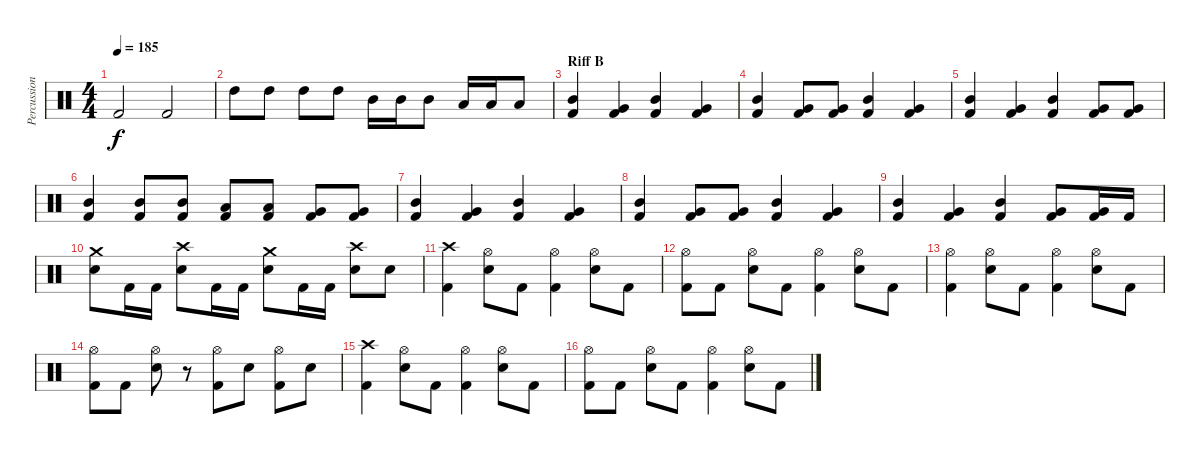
\track ("Percussions" "Percussion") {instrument percussion}
\staff {score}
\articulation defaults
\ts (4 4)
\tempo 185
\clef neutral
\ks c "Kick (hit) 2".2{dy f} "Kick (hit) 2".2
|
"High Tom (hit)".8 "High Tom (hit)".8 "High Tom (hit)".8 "High Tom (hit)".8 "Mid Tom (hit)".16 "Mid Tom (hit)".16 "Mid Tom (hit)".8 "Low Tom (hit)".16 "Low Tom (hit)".16 "Low Tom (hit)".8 |
\section ("" "Riff B")
("Mid Tom (hit)" "Kick (hit) 2").4 ("Very Low Tom (hit)" "Kick (hit) 2").4 ("Mid Tom (hit)" "Kick (hit) 2").4 ("Very Low Tom (hit)" "Kick (hit) 2").4 |
("Mid Tom (hit)" "Kick (hit) 2").4 ("Very Low Tom (hit)" "Kick (hit) 2").8 ("Very Low Tom (hit)" "Kick (hit) 2").8 ("Mid Tom (hit)" "Kick (hit) 2").4 ("Very Low Tom (hit)" "Kick (hit) 2").4 |
("Mid Tom (hit)" "Kick (hit) 2").4 ("Very Low Tom (hit)" "Kick (hit) 2").4 ("Mid Tom (hit)" "Kick (hit) 2").4 ("Very Low Tom (hit)" "Kick (hit) 2").8 ("Very Low Tom (hit)" "Kick (hit) 2").8 |
("Mid Tom (hit)" "Kick (hit) 2").4 ("Mid Tom (hit)" "Kick (hit) 2").8 ("Mid Tom (hit)" "Kick (hit) 2").8 ("Low Tom (hit)" "Kick (hit) 2").8 ("Low Tom (hit)" "Kick (hit) 2").8 ("Very Low Tom (hit)" "Kick (hit) 2").8 ("Very Low Tom (hit)" "Kick (hit) 2").8 |
("Mid Tom (hit)" "Kick (hit) 2").4 ("Very Low Tom (hit)" "Kick (hit) 2").4 ("Mid Tom (hit)" "Kick (hit) 2").4 ("Very Low Tom (hit)" "Kick (hit) 2").4 |
("Mid Tom (hit)" "Kick (hit) 2").4 ("Very Low Tom (hit)" "Kick (hit) 2").8 ("Very Low Tom (hit)" "Kick (hit) 2").8 ("Mid Tom (hit)" "Kick (hit) 2").4 ("Very Low Tom (hit)" "Kick (hit) 2").4 |
("Mid Tom (hit)" "Kick (hit) 2").4 ("Very Low Tom (hit)" "Kick (hit) 2").4 ("Mid Tom (hit)" "Kick (hit) 2").4 ("Very Low Tom (hit)" "Kick (hit) 2").8 ("Very Low Tom (hit)" "Kick (hit) 2").16 "Kick (hit) 2".16 |
("Crash medium (hit)" "Snare (hit) 2").8 "Kick (hit) 2".16 "Kick (hit) 2".16 ("Crash high (hit)" "Snare (hit) 2").8 "Kick (hit) 2".16 "Kick (hit) 2".16 ("Crash medium (hit)" "Snare (hit) 2").8 "Kick (hit) 2".16 "Kick (hit) 2".16 ("Crash high (hit)" "Snare (hit) 2").8 "Snare (hit) 2".8 |
("Crash high (hit)" "Kick (hit) 2").4 ("Hi-Hat (open)" "Snare (hit) 2").8 "Kick (hit) 2".8 ("Hi-Hat (open)" "Kick (hit) 2").4 ("Hi-Hat (open)" "Snare (hit) 2").8 "Kick (hit) 2".8 |
("Hi-Hat (open)" "Kick (hit) 2").8 "Kick (hit) 2".8 ("Hi-Hat (open)" "Snare (hit) 2").8 "Kick (hit) 2".8 ("Hi-Hat (open)" "Kick (hit) 2").4 ("Hi-Hat (open)" "Snare (hit) 2").8 "Kick (hit) 2".8 |
("Hi-Hat (open)" "Kick (hit) 2").4 ("Hi-Hat (open)" "Snare (hit) 2").8 "Kick (hit) 2".8 ("Hi-Hat (open)" "Kick (hit) 2").4 ("Hi-Hat (open)" "Snare (hit) 2").8 "Kick (hit) 2".8 |
("Hi-Hat (open)" "Kick (hit) 2").8 "Kick (hit) 2".8 ("Hi-Hat (open)" "Snare (hit) 2").8 r.8 ("Hi-Hat (open)" "Kick (hit) 2").8 "Snare (hit) 2".8 ("Hi-Hat (open)" "Kick (hit) 2").8 "Snare (hit) 2".8 |
("Crash high (hit)" "Kick (hit) 2").4 ("Hi-Hat (open)" "Snare (hit) 2").8 "Kick (hit) 2".8 ("Hi-Hat (open)" "Kick (hit) 2").4 ("Hi-Hat (open)" "Snare (hit) 2").8 "Kick (hit) 2".8 |
("Hi-Hat (open)" "Kick (hit) 2").8 "Kick (hit) 2".8 ("Hi-Hat (open)" "Snare (hit) 2").8 "Kick (hit) 2".8 ("Hi-Hat (open)" "Kick (hit) 2").4 ("Hi-Hat (open)" "Snare (hit) 2").8 "Kick (hit) 2".8
